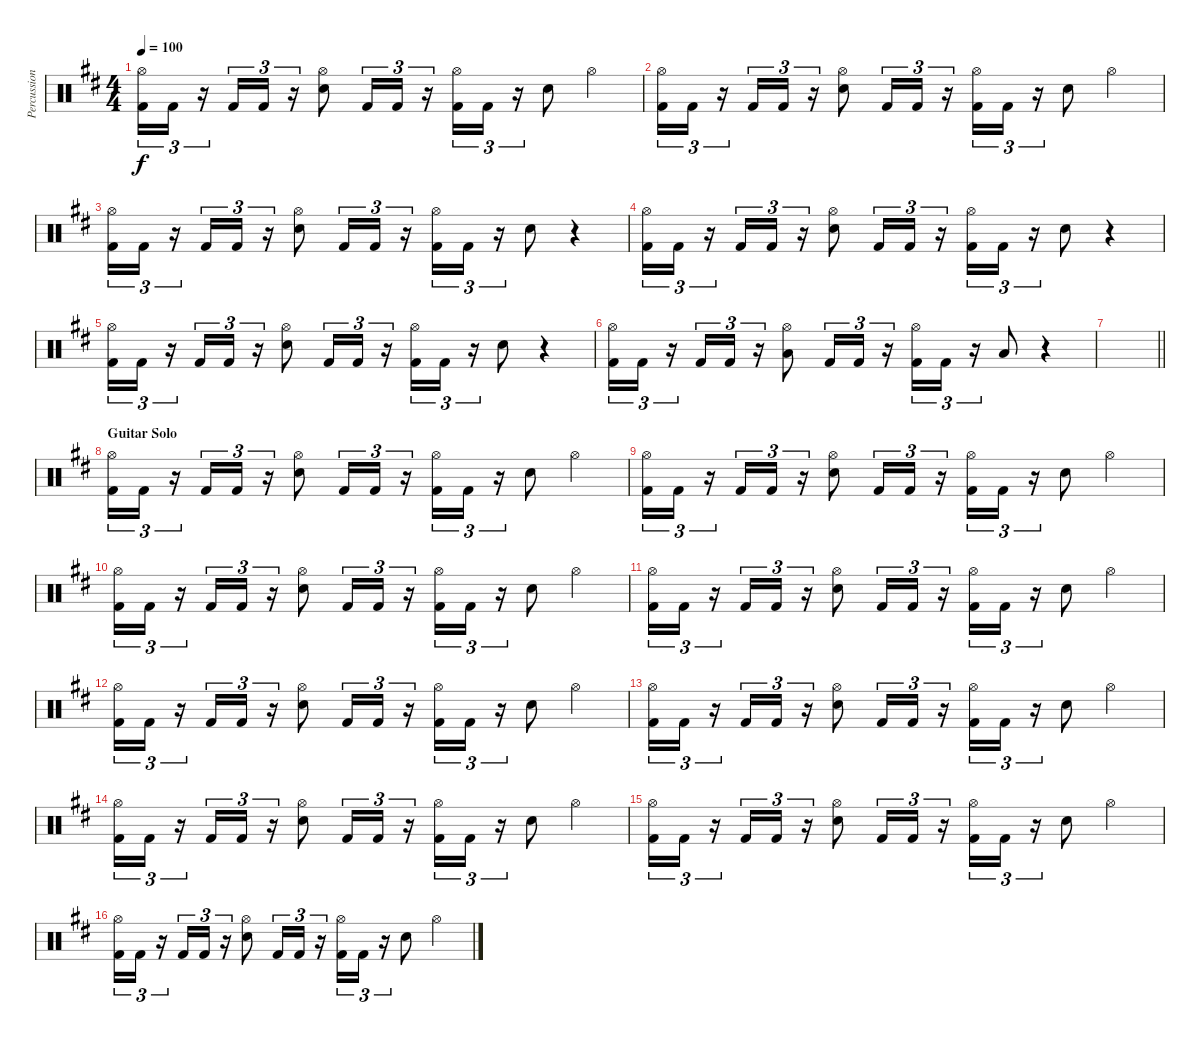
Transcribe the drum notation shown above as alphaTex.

\track ("Percussion" "Percussion") {instrument percussion}
\staff {score}
\articulation defaults
\ts (4 4)
\tempo 100
\clef neutral
\ks d
("Hi-Hat (open)" "Kick (hit) 2").16{tu (3 2) dy f} "Kick (hit) 2".16{tu (3 2)} r.16{tu (3 2)} "Kick (hit) 2".16{tu (3 2)} "Kick (hit) 2".16{tu (3 2)} r.16{tu (3 2)} ("Hi-Hat (open)" "Electric Snare (hit)").8 "Kick (hit) 2".16{tu (3 2)} "Kick (hit) 2".16{tu (3 2)} r.16{tu (3 2)} ("Hi-Hat (open)" "Kick (hit) 2").16{tu (3 2)} "Kick (hit) 2".16{tu (3 2)} r.16{tu (3 2)} "Electric Snare (hit)".8 "Hi-Hat (open)".4 |
("Hi-Hat (open)" "Kick (hit) 2").16{tu (3 2)} "Kick (hit) 2".16{tu (3 2)} r.16{tu (3 2)} "Kick (hit) 2".16{tu (3 2)} "Kick (hit) 2".16{tu (3 2)} r.16{tu (3 2)} ("Hi-Hat (open)" "Electric Snare (hit)").8 "Kick (hit) 2".16{tu (3 2)} "Kick (hit) 2".16{tu (3 2)} r.16{tu (3 2)} ("Hi-Hat (open)" "Kick (hit) 2").16{tu (3 2)} "Kick (hit) 2".16{tu (3 2)} r.16{tu (3 2)} "Electric Snare (hit)".8 "Hi-Hat (open)".4 |
("Hi-Hat (open)" "Kick (hit) 2").16{tu (3 2)} "Kick (hit) 2".16{tu (3 2)} r.16{tu (3 2)} "Kick (hit) 2".16{tu (3 2)} "Kick (hit) 2".16{tu (3 2)} r.16{tu (3 2)} ("Hi-Hat (open)" "Electric Snare (hit)").8 "Kick (hit) 2".16{tu (3 2)} "Kick (hit) 2".16{tu (3 2)} r.16{tu (3 2)} ("Hi-Hat (open)" "Kick (hit) 2").16{tu (3 2)} "Kick (hit) 2".16{tu (3 2)} r.16{tu (3 2)} "Electric Snare (hit)".8 r.4 |
("Hi-Hat (open)" "Kick (hit) 2").16{tu (3 2)} "Kick (hit) 2".16{tu (3 2)} r.16{tu (3 2)} "Kick (hit) 2".16{tu (3 2)} "Kick (hit) 2".16{tu (3 2)} r.16{tu (3 2)} ("Hi-Hat (open)" "Electric Snare (hit)").8 "Kick (hit) 2".16{tu (3 2)} "Kick (hit) 2".16{tu (3 2)} r.16{tu (3 2)} ("Hi-Hat (open)" "Kick (hit) 2").16{tu (3 2)} "Kick (hit) 2".16{tu (3 2)} r.16{tu (3 2)} "Electric Snare (hit)".8 r.4 |
("Hi-Hat (open)" "Kick (hit) 2").16{tu (3 2)} "Kick (hit) 2".16{tu (3 2)} r.16{tu (3 2)} "Kick (hit) 2".16{tu (3 2)} "Kick (hit) 2".16{tu (3 2)} r.16{tu (3 2)} ("Hi-Hat (open)" "Electric Snare (hit)").8 "Kick (hit) 2".16{tu (3 2)} "Kick (hit) 2".16{tu (3 2)} r.16{tu (3 2)} ("Hi-Hat (open)" "Kick (hit) 2").16{tu (3 2)} "Kick (hit) 2".16{tu (3 2)} r.16{tu (3 2)} "Electric Snare (hit)".8 r.4 |
("Hi-Hat (open)" "Kick (hit) 2").16{tu (3 2)} "Kick (hit) 2".16{tu (3 2)} r.16{tu (3 2)} "Kick (hit) 2".16{tu (3 2)} "Kick (hit) 2".16{tu (3 2)} r.16{tu (3 2)} ("Hi-Hat (open)" "Low Tom (hit)").8 "Kick (hit) 2".16{tu (3 2)} "Kick (hit) 2".16{tu (3 2)} r.16{tu (3 2)} ("Hi-Hat (open)" "Kick (hit) 2").16{tu (3 2)} "Kick (hit) 2".16{tu (3 2)} r.16{tu (3 2)} "Low Tom (hit)".8 r.4 |
\barLineRight lightlight
|
\section ("" "Guitar Solo")
("Hi-Hat (open)" "Kick (hit) 2").16{tu (3 2)} "Kick (hit) 2".16{tu (3 2)} r.16{tu (3 2)} "Kick (hit) 2".16{tu (3 2)} "Kick (hit) 2".16{tu (3 2)} r.16{tu (3 2)} ("Hi-Hat (open)" "Electric Snare (hit)").8 "Kick (hit) 2".16{tu (3 2)} "Kick (hit) 2".16{tu (3 2)} r.16{tu (3 2)} ("Hi-Hat (open)" "Kick (hit) 2").16{tu (3 2)} "Kick (hit) 2".16{tu (3 2)} r.16{tu (3 2)} "Electric Snare (hit)".8 "Hi-Hat (open)".4 |
("Hi-Hat (open)" "Kick (hit) 2").16{tu (3 2)} "Kick (hit) 2".16{tu (3 2)} r.16{tu (3 2)} "Kick (hit) 2".16{tu (3 2)} "Kick (hit) 2".16{tu (3 2)} r.16{tu (3 2)} ("Hi-Hat (open)" "Electric Snare (hit)").8 "Kick (hit) 2".16{tu (3 2)} "Kick (hit) 2".16{tu (3 2)} r.16{tu (3 2)} ("Hi-Hat (open)" "Kick (hit) 2").16{tu (3 2)} "Kick (hit) 2".16{tu (3 2)} r.16{tu (3 2)} "Electric Snare (hit)".8 "Hi-Hat (open)".4 |
("Hi-Hat (open)" "Kick (hit) 2").16{tu (3 2)} "Kick (hit) 2".16{tu (3 2)} r.16{tu (3 2)} "Kick (hit) 2".16{tu (3 2)} "Kick (hit) 2".16{tu (3 2)} r.16{tu (3 2)} ("Hi-Hat (open)" "Electric Snare (hit)").8 "Kick (hit) 2".16{tu (3 2)} "Kick (hit) 2".16{tu (3 2)} r.16{tu (3 2)} ("Hi-Hat (open)" "Kick (hit) 2").16{tu (3 2)} "Kick (hit) 2".16{tu (3 2)} r.16{tu (3 2)} "Electric Snare (hit)".8 "Hi-Hat (open)".4 |
("Hi-Hat (open)" "Kick (hit) 2").16{tu (3 2)} "Kick (hit) 2".16{tu (3 2)} r.16{tu (3 2)} "Kick (hit) 2".16{tu (3 2)} "Kick (hit) 2".16{tu (3 2)} r.16{tu (3 2)} ("Hi-Hat (open)" "Electric Snare (hit)").8 "Kick (hit) 2".16{tu (3 2)} "Kick (hit) 2".16{tu (3 2)} r.16{tu (3 2)} ("Hi-Hat (open)" "Kick (hit) 2").16{tu (3 2)} "Kick (hit) 2".16{tu (3 2)} r.16{tu (3 2)} "Electric Snare (hit)".8 "Hi-Hat (open)".4 |
("Hi-Hat (open)" "Kick (hit) 2").16{tu (3 2)} "Kick (hit) 2".16{tu (3 2)} r.16{tu (3 2)} "Kick (hit) 2".16{tu (3 2)} "Kick (hit) 2".16{tu (3 2)} r.16{tu (3 2)} ("Hi-Hat (open)" "Electric Snare (hit)").8 "Kick (hit) 2".16{tu (3 2)} "Kick (hit) 2".16{tu (3 2)} r.16{tu (3 2)} ("Hi-Hat (open)" "Kick (hit) 2").16{tu (3 2)} "Kick (hit) 2".16{tu (3 2)} r.16{tu (3 2)} "Electric Snare (hit)".8 "Hi-Hat (open)".4 |
("Hi-Hat (open)" "Kick (hit) 2").16{tu (3 2)} "Kick (hit) 2".16{tu (3 2)} r.16{tu (3 2)} "Kick (hit) 2".16{tu (3 2)} "Kick (hit) 2".16{tu (3 2)} r.16{tu (3 2)} ("Hi-Hat (open)" "Electric Snare (hit)").8 "Kick (hit) 2".16{tu (3 2)} "Kick (hit) 2".16{tu (3 2)} r.16{tu (3 2)} ("Hi-Hat (open)" "Kick (hit) 2").16{tu (3 2)} "Kick (hit) 2".16{tu (3 2)} r.16{tu (3 2)} "Electric Snare (hit)".8 "Hi-Hat (open)".4 |
("Hi-Hat (open)" "Kick (hit) 2").16{tu (3 2)} "Kick (hit) 2".16{tu (3 2)} r.16{tu (3 2)} "Kick (hit) 2".16{tu (3 2)} "Kick (hit) 2".16{tu (3 2)} r.16{tu (3 2)} ("Hi-Hat (open)" "Electric Snare (hit)").8 "Kick (hit) 2".16{tu (3 2)} "Kick (hit) 2".16{tu (3 2)} r.16{tu (3 2)} ("Hi-Hat (open)" "Kick (hit) 2").16{tu (3 2)} "Kick (hit) 2".16{tu (3 2)} r.16{tu (3 2)} "Electric Snare (hit)".8 "Hi-Hat (open)".4 |
("Hi-Hat (open)" "Kick (hit) 2").16{tu (3 2)} "Kick (hit) 2".16{tu (3 2)} r.16{tu (3 2)} "Kick (hit) 2".16{tu (3 2)} "Kick (hit) 2".16{tu (3 2)} r.16{tu (3 2)} ("Hi-Hat (open)" "Electric Snare (hit)").8 "Kick (hit) 2".16{tu (3 2)} "Kick (hit) 2".16{tu (3 2)} r.16{tu (3 2)} ("Hi-Hat (open)" "Kick (hit) 2").16{tu (3 2)} "Kick (hit) 2".16{tu (3 2)} r.16{tu (3 2)} "Electric Snare (hit)".8 "Hi-Hat (open)".4 |
("Hi-Hat (open)" "Kick (hit) 2").16{tu (3 2)} "Kick (hit) 2".16{tu (3 2)} r.16{tu (3 2)} "Kick (hit) 2".16{tu (3 2)} "Kick (hit) 2".16{tu (3 2)} r.16{tu (3 2)} ("Hi-Hat (open)" "Electric Snare (hit)").8 "Kick (hit) 2".16{tu (3 2)} "Kick (hit) 2".16{tu (3 2)} r.16{tu (3 2)} ("Hi-Hat (open)" "Kick (hit) 2").16{tu (3 2)} "Kick (hit) 2".16{tu (3 2)} r.16{tu (3 2)} "Electric Snare (hit)".8 "Hi-Hat (open)".4
